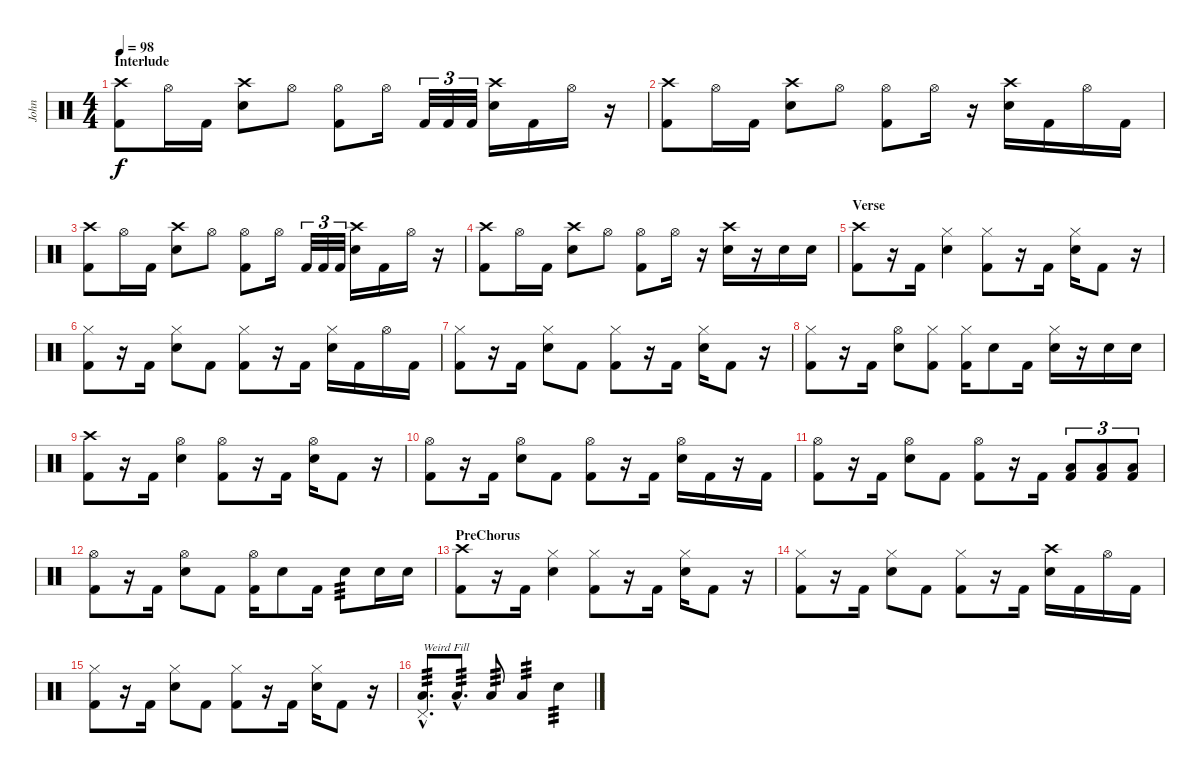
\track ("John" "John") {instrument percussion}
\staff {score}
\articulation defaults
\ts (4 4)
\section ("" "Interlude")
\tempo 98
\clef neutral
\ks c
("Crash high (hit)" "Kick (hit) 2").8{dy f} "Hi-Hat (open)".16 "Kick (hit) 2".16 ("Crash high (hit)" "Snare (hit) 2").8 "Hi-Hat (open)".8 ("Hi-Hat (open)" "Kick (hit) 2").8 "Hi-Hat (open)".16 "Kick (hit) 2".32{tu (3 2)} "Kick (hit) 2".32{tu (3 2)} "Kick (hit) 2".32{tu (3 2)} ("Crash high (hit)" "Snare (hit) 2").16 "Kick (hit) 2".16 "Hi-Hat (open)".16 r.16 |
("Crash high (hit)" "Kick (hit) 2").8 "Hi-Hat (open)".16 "Kick (hit) 2".16 ("Crash high (hit)" "Snare (hit) 2").8 "Hi-Hat (open)".8 ("Hi-Hat (open)" "Kick (hit) 2").8 "Hi-Hat (open)".16 r.16 ("Crash high (hit)" "Snare (hit) 2").16 "Kick (hit) 2".16 "Hi-Hat (open)".16 "Kick (hit) 2".16 |
("Crash high (hit)" "Kick (hit) 2").8 "Hi-Hat (open)".16 "Kick (hit) 2".16 ("Crash high (hit)" "Snare (hit) 2").8 "Hi-Hat (open)".8 ("Hi-Hat (open)" "Kick (hit) 2").8 "Hi-Hat (open)".16 "Kick (hit) 2".32{tu (3 2)} "Kick (hit) 2".32{tu (3 2)} "Kick (hit) 2".32{tu (3 2)} ("Crash high (hit)" "Snare (hit) 2").16 "Kick (hit) 2".16 "Hi-Hat (open)".16 r.16 |
("Crash high (hit)" "Kick (hit) 2").8 "Hi-Hat (open)".16 "Kick (hit) 2".16 ("Crash high (hit)" "Snare (hit) 2").8 "Hi-Hat (open)".8 ("Hi-Hat (open)" "Kick (hit) 2").8 "Hi-Hat (open)".16 r.16 ("Crash high (hit)" "Snare (hit) 2").16 r.16 "Snare (hit) 2".16 "Snare (hit) 2".16 |
\section ("" "Verse")
("Crash high (hit)" "Kick (hit) 2").8 r.16 "Kick (hit) 2".16 ("Hi-Hat (closed)" "Snare (hit) 2").4 ("Hi-Hat (closed)" "Kick (hit) 2").8 r.16 "Kick (hit) 2".16 ("Hi-Hat (closed)" "Snare (hit) 2").16 "Kick (hit) 2".8 r.16 |
("Hi-Hat (closed)" "Kick (hit) 2").8 r.16 "Kick (hit) 2".16 ("Hi-Hat (closed)" "Snare (hit) 2").8 "Kick (hit) 2".8 ("Hi-Hat (closed)" "Kick (hit) 2").8 r.16 "Kick (hit) 2".16 ("Hi-Hat (closed)" "Snare (hit) 2").16 "Kick (hit) 2".16 "Hi-Hat (open)".16 "Kick (hit) 2".16 |
("Hi-Hat (closed)" "Kick (hit) 2").8 r.16 "Kick (hit) 2".16 ("Hi-Hat (closed)" "Snare (hit) 2").8 "Kick (hit) 2".8 ("Hi-Hat (closed)" "Kick (hit) 2").8 r.16 "Kick (hit) 2".16 ("Hi-Hat (closed)" "Snare (hit) 2").16 "Kick (hit) 2".8 r.16 |
("Hi-Hat (closed)" "Kick (hit) 2").8 r.16 "Kick (hit) 2".16 ("Hi-Hat (open)" "Snare (hit) 2").8 ("Hi-Hat (closed)" "Kick (hit) 2").8 ("Hi-Hat (closed)" "Kick (hit) 2").16 "Snare (hit) 2".8 "Kick (hit) 2".16 ("Hi-Hat (closed)" "Snare (hit) 2").16 r.16 "Snare (hit) 2".16 "Snare (hit) 2".16 |
("Crash high (hit)" "Kick (hit) 2").8 r.16 "Kick (hit) 2".16 ("Hi-Hat (open)" "Snare (hit) 2").4 ("Hi-Hat (open)" "Kick (hit) 2").8 r.16 "Kick (hit) 2".16 ("Hi-Hat (open)" "Snare (hit) 2").16 "Kick (hit) 2".8 r.16 |
("Hi-Hat (open)" "Kick (hit) 2").8 r.16 "Kick (hit) 2".16 ("Hi-Hat (open)" "Snare (hit) 2").8 "Kick (hit) 2".8 ("Hi-Hat (open)" "Kick (hit) 2").8 r.16 "Kick (hit) 2".16 ("Hi-Hat (open)" "Snare (hit) 2").16 "Kick (hit) 2".16 r.16 "Kick (hit) 2".16 |
("Hi-Hat (open)" "Kick (hit) 2").8 r.16 "Kick (hit) 2".16 ("Hi-Hat (open)" "Snare (hit) 2").8 "Kick (hit) 2".8 ("Hi-Hat (open)" "Kick (hit) 2").8 r.16 "Kick (hit) 2".16 ("Low Floor Tom (hit)" "Kick (hit) 2").8{tu (3 2)} ("Low Floor Tom (hit)" "Kick (hit) 2").8{tu (3 2)} ("Low Floor Tom (hit)" "Kick (hit) 2").8{tu (3 2)} |
("Hi-Hat (open)" "Kick (hit) 2").8 r.16 "Kick (hit) 2".16 ("Hi-Hat (open)" "Snare (hit) 2").8 "Kick (hit) 2".8 ("Hi-Hat (open)" "Kick (hit) 2").16 "Snare (hit) 2".8 "Kick (hit) 2".16 "Snare (hit) 2".8{tp 3} "Snare (hit) 2".16 "Snare (hit) 2".16 |
\section ("" "PreChorus")
("Crash high (hit)" "Kick (hit) 2").8 r.16 "Kick (hit) 2".16 ("Hi-Hat (closed)" "Snare (hit) 2").4 ("Hi-Hat (closed)" "Kick (hit) 2").8 r.16 "Kick (hit) 2".16 ("Hi-Hat (closed)" "Snare (hit) 2").16 "Kick (hit) 2".8 r.16 |
("Hi-Hat (closed)" "Kick (hit) 2").8 r.16 "Kick (hit) 2".16 ("Hi-Hat (closed)" "Snare (hit) 2").8 "Kick (hit) 2".8 ("Hi-Hat (closed)" "Kick (hit) 2").8 r.16 "Kick (hit) 2".16 ("Crash high (hit)" "Snare (hit) 2").16 "Kick (hit) 2".16 "Hi-Hat (open)".16 "Kick (hit) 2".16 |
("Hi-Hat (closed)" "Kick (hit) 2").8 r.16 "Kick (hit) 2".16 ("Hi-Hat (closed)" "Snare (hit) 2").8 "Kick (hit) 2".8 ("Hi-Hat (closed)" "Kick (hit) 2").8 r.16 "Kick (hit) 2".16 ("Hi-Hat (closed)" "Snare (hit) 2").16 "Kick (hit) 2".8 r.16 |
("Pedal Hi-Hat (hit)"{hac} "Low Floor Tom (hit)"{hac}).8{d txt "Weird Fill" tp 3} "Low Floor Tom (hit)"{hac}.8{d tp 3} "Low Floor Tom (hit)".8{tp 3} "Low Tom (hit)".4{tp 3} "Snare (hit) 2".4{tp 3}
